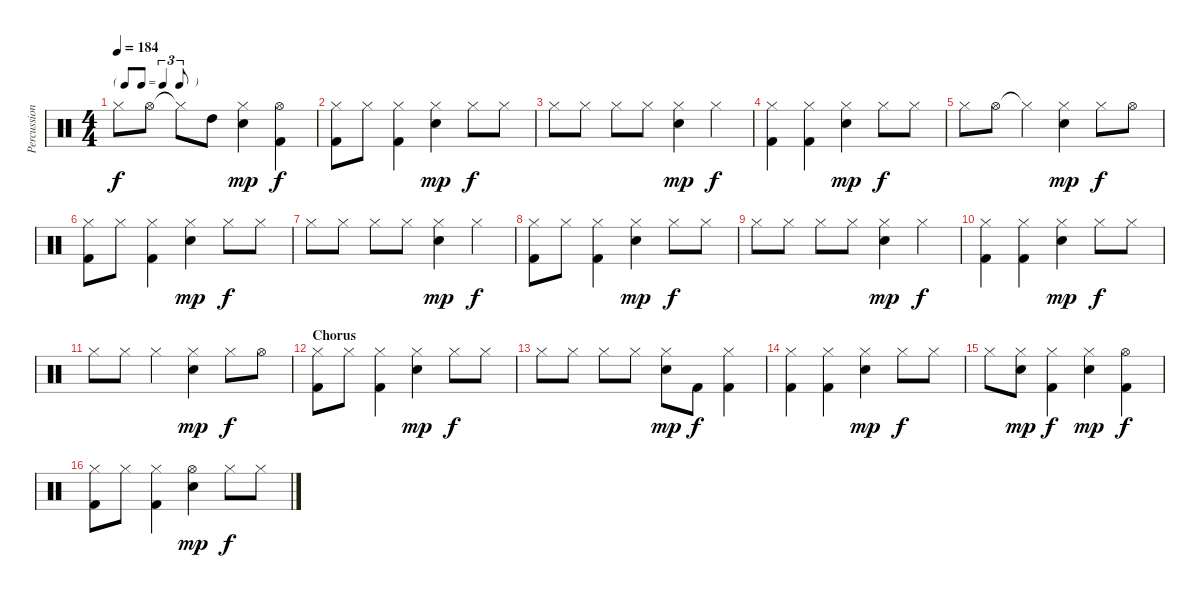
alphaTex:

\track ("Percussion" "Percussion") {instrument percussion}
\staff {score}
\articulation defaults
\ts (4 4)
\tf triplet8th
\tempo 184
\clef neutral
\ks c "Hi-Hat (closed)".8{dy f} "Hi-Hat (open)".8 "Hi-Hat (closed)"{t}.8 "High Tom (hit)".8
("Hi-Hat (closed)" "Electric Snare (hit)").4{dy mp} ("Hi-Hat (open)" "Kick (hit) 2").4{dy f} |
("Hi-Hat (closed)" "Kick (hit) 2").8 "Hi-Hat (closed)".8 ("Hi-Hat (closed)" "Kick (hit) 2").4 ("Hi-Hat (closed)" "Electric Snare (hit)").4{dy mp} "Hi-Hat (closed)".8{dy f} "Hi-Hat (closed)".8 |
"Hi-Hat (closed)".8 "Hi-Hat (closed)".8 "Hi-Hat (closed)".8 "Hi-Hat (closed)".8 ("Hi-Hat (closed)" "Electric Snare (hit)").4{dy mp} "Hi-Hat (closed)".4{dy f} |
("Hi-Hat (closed)" "Kick (hit) 2").4 ("Hi-Hat (closed)" "Kick (hit) 2").4 ("Hi-Hat (closed)" "Electric Snare (hit)").4{dy mp} "Hi-Hat (closed)".8{dy f} "Hi-Hat (closed)".8 |
"Hi-Hat (closed)".8 "Hi-Hat (open)".8 "Hi-Hat (closed)"{t}.4 ("Hi-Hat (closed)" "Electric Snare (hit)").4{dy mp} "Hi-Hat (closed)".8{dy f} "Hi-Hat (open)".8 |
("Hi-Hat (closed)" "Kick (hit) 2").8 "Hi-Hat (closed)".8 ("Hi-Hat (closed)" "Kick (hit) 2").4 ("Hi-Hat (closed)" "Electric Snare (hit)").4{dy mp} "Hi-Hat (closed)".8{dy f} "Hi-Hat (closed)".8 |
"Hi-Hat (closed)".8 "Hi-Hat (closed)".8 "Hi-Hat (closed)".8 "Hi-Hat (closed)".8 ("Hi-Hat (closed)" "Electric Snare (hit)").4{dy mp} "Hi-Hat (closed)".4{dy f} |
("Hi-Hat (closed)" "Kick (hit) 2").8 "Hi-Hat (closed)".8 ("Hi-Hat (closed)" "Kick (hit) 2").4 ("Hi-Hat (closed)" "Electric Snare (hit)").4{dy mp} "Hi-Hat (closed)".8{dy f} "Hi-Hat (closed)".8 |
"Hi-Hat (closed)".8 "Hi-Hat (closed)".8 "Hi-Hat (closed)".8 "Hi-Hat (closed)".8 ("Hi-Hat (closed)" "Electric Snare (hit)").4{dy mp} "Hi-Hat (closed)".4{dy f} |
("Hi-Hat (closed)" "Kick (hit) 2").4 ("Hi-Hat (closed)" "Kick (hit) 2").4 ("Hi-Hat (closed)" "Electric Snare (hit)").4{dy mp} "Hi-Hat (closed)".8{dy f} "Hi-Hat (closed)".8 |
"Hi-Hat (closed)".8 "Hi-Hat (closed)".8 "Hi-Hat (closed)".4 ("Hi-Hat (closed)" "Electric Snare (hit)").4{dy mp} "Hi-Hat (closed)".8{dy f} "Hi-Hat (open)".8 |
\section ("" "Chorus")
("Hi-Hat (closed)" "Kick (hit) 2").8 "Hi-Hat (closed)".8 ("Hi-Hat (closed)" "Kick (hit) 2").4 ("Hi-Hat (closed)" "Electric Snare (hit)").4{dy mp} "Hi-Hat (closed)".8{dy f} "Hi-Hat (closed)".8 |
"Hi-Hat (closed)".8 "Hi-Hat (closed)".8 "Hi-Hat (closed)".8 "Hi-Hat (closed)".8 ("Hi-Hat (closed)" "Electric Snare (hit)").8{dy mp} "Kick (hit) 2".8{dy f} ("Hi-Hat (closed)" "Kick (hit) 2").4 |
("Hi-Hat (closed)" "Kick (hit) 2").4 ("Hi-Hat (closed)" "Kick (hit) 2").4 ("Hi-Hat (closed)" "Electric Snare (hit)").4{dy mp} "Hi-Hat (closed)".8{dy f} "Hi-Hat (closed)".8 |
"Hi-Hat (closed)".8 ("Hi-Hat (closed)" "Electric Snare (hit)").8{dy mp} ("Hi-Hat (closed)" "Kick (hit) 2").4{dy f} ("Hi-Hat (closed)" "Electric Snare (hit)").4{dy mp} ("Hi-Hat (open)" "Kick (hit) 2").4{dy f} |
("Hi-Hat (closed)" "Kick (hit) 2").8 "Hi-Hat (closed)".8 ("Hi-Hat (closed)" "Kick (hit) 2").4 ("Hi-Hat (open)" "Electric Snare (hit)").4{dy mp} "Hi-Hat (closed)".8{dy f} "Hi-Hat (closed)".8
